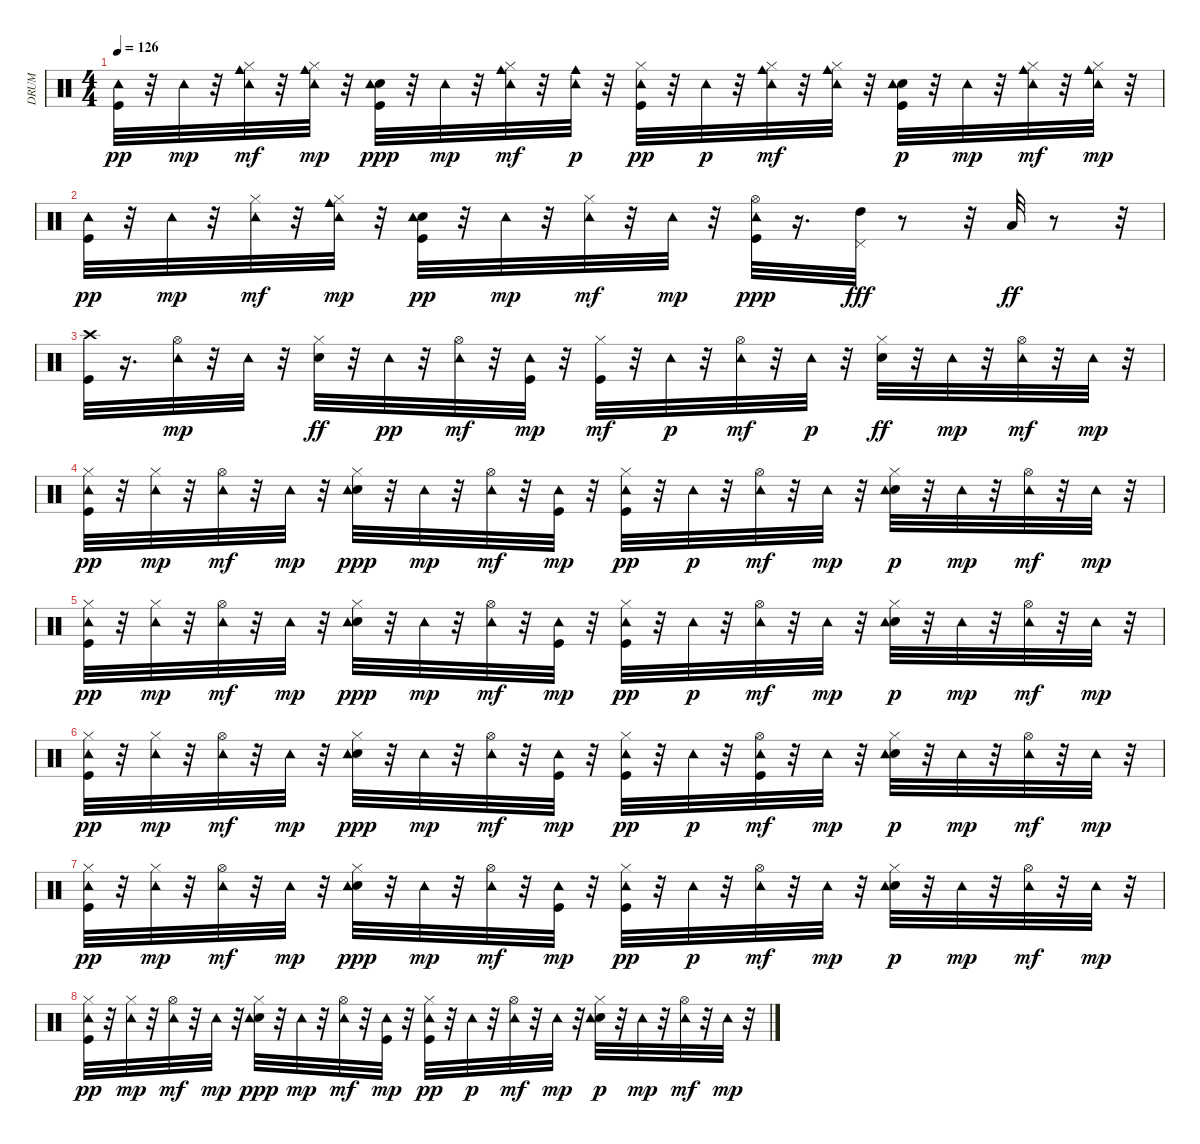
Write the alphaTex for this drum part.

\track ("DRUM" "DRUM") {instrument percussion}
\staff {score}
\articulation defaults
\ts (4 4)
\tempo 126
\clef neutral
\ks c
("Kick (hit)" "Tambourine (hit)").32{dy pp} r.32 "Tambourine (hit)".32{dy mp} r.32 ("Hi-Hat (closed)" "Tambourine (hit)" "Cowbell medium (hit)").32{dy mf} r.32 ("Hi-Hat (closed)" "Tambourine (hit)" "Cowbell medium (hit)").32{dy mp} r.32 ("Kick (hit)" "Electric Snare (hit)" "Tambourine (hit)").32{dy ppp} r.32 "Tambourine (hit)".32{dy mp} r.32 ("Hi-Hat (closed)" "Tambourine (hit)" "Cowbell medium (hit)").32{dy mf} r.32 ("Tambourine (hit)" "Cowbell medium (hit)").32{dy p} r.32 ("Kick (hit)" "Hi-Hat (closed)" "Tambourine (hit)").32{dy pp} r.32 "Tambourine (hit)".32{dy p} r.32 ("Hi-Hat (closed)" "Tambourine (hit)" "Cowbell medium (hit)").32{dy mf} r.32 ("Hi-Hat (closed)" "Tambourine (hit)" "Cowbell medium (hit)").32 r.32 ("Kick (hit)" "Electric Snare (hit)" "Tambourine (hit)").32{dy p} r.32 "Tambourine (hit)".32{dy mp} r.32 ("Hi-Hat (closed)" "Tambourine (hit)" "Cowbell medium (hit)").32{dy mf} r.32 ("Hi-Hat (closed)" "Tambourine (hit)" "Cowbell medium (hit)").32{dy mp} r.32 |
("Kick (hit)" "Tambourine (hit)").32{dy pp} r.32 "Tambourine (hit)".32{dy mp} r.32 ("Hi-Hat (closed)" "Tambourine (hit)").32{dy mf} r.32 ("Hi-Hat (closed)" "Tambourine (hit)" "Cowbell medium (hit)").32{dy mp} r.32 ("Kick (hit)" "Electric Snare (hit)" "Tambourine (hit)").32{dy pp} r.32 "Tambourine (hit)".32{dy mp} r.32 ("Hi-Hat (closed)" "Tambourine (hit)").32{dy mf} r.32 "Tambourine (hit)".32{dy mp} r.32 ("Kick (hit)" "Hi-Hat (open)" "Tambourine (hit)").32{dy ppp} r.16{d} ("High Tom (hit)" "Pedal Hi-Hat (hit)").32{dy fff} r.8 r.32 "Low Tom (hit)".32{dy ff} r.8 r.32 |
("Kick (hit)" "Crash high (hit)").32 r.16{d} ("Hi-Hat (open)" "Tambourine (hit)").32{dy mp} r.32 "Tambourine (hit)".32 r.32 ("Electric Snare (hit)" "Hi-Hat (closed)").32{dy ff} r.32 "Tambourine (hit)".32{dy pp} r.32 ("Hi-Hat (open)" "Tambourine (hit)").32{dy mf} r.32 ("Kick (hit)" "Tambourine (hit)").32{dy mp} r.32 ("Kick (hit)" "Hi-Hat (closed)").32{dy mf} r.32 "Tambourine (hit)".32{dy p} r.32 ("Hi-Hat (open)" "Tambourine (hit)").32{dy mf} r.32 "Tambourine (hit)".32{dy p} r.32 ("Electric Snare (hit)" "Hi-Hat (closed)").32{dy ff} r.32 "Tambourine (hit)".32{dy mp} r.32 ("Hi-Hat (open)" "Tambourine (hit)").32{dy mf} r.32 "Tambourine (hit)".32{dy mp} r.32 |
("Kick (hit)" "Hi-Hat (closed)" "Tambourine (hit)").32{dy pp} r.32 ("Hi-Hat (closed)" "Tambourine (hit)").32{dy mp} r.32 ("Hi-Hat (open)" "Tambourine (hit)").32{dy mf} r.32 "Tambourine (hit)".32{dy mp} r.32 ("Electric Snare (hit)" "Hi-Hat (closed)" "Tambourine (hit)").32{dy ppp} r.32 "Tambourine (hit)".32{dy mp} r.32 ("Hi-Hat (open)" "Tambourine (hit)").32{dy mf} r.32 ("Kick (hit)" "Tambourine (hit)").32{dy mp} r.32 ("Kick (hit)" "Hi-Hat (closed)" "Tambourine (hit)").32{dy pp} r.32 "Tambourine (hit)".32{dy p} r.32 ("Hi-Hat (open)" "Tambourine (hit)").32{dy mf} r.32 "Tambourine (hit)".32{dy mp} r.32 ("Electric Snare (hit)" "Hi-Hat (closed)" "Tambourine (hit)").32{dy p} r.32 "Tambourine (hit)".32{dy mp} r.32 ("Hi-Hat (open)" "Tambourine (hit)").32{dy mf} r.32 "Tambourine (hit)".32{dy mp} r.32 |
("Kick (hit)" "Hi-Hat (closed)" "Tambourine (hit)").32{dy pp} r.32 ("Hi-Hat (closed)" "Tambourine (hit)").32{dy mp} r.32 ("Hi-Hat (open)" "Tambourine (hit)").32{dy mf} r.32 "Tambourine (hit)".32{dy mp} r.32 ("Electric Snare (hit)" "Hi-Hat (closed)" "Tambourine (hit)").32{dy ppp} r.32 "Tambourine (hit)".32{dy mp} r.32 ("Hi-Hat (open)" "Tambourine (hit)").32{dy mf} r.32 ("Kick (hit)" "Tambourine (hit)").32{dy mp} r.32 ("Kick (hit)" "Hi-Hat (closed)" "Tambourine (hit)").32{dy pp} r.32 "Tambourine (hit)".32{dy p} r.32 ("Hi-Hat (open)" "Tambourine (hit)").32{dy mf} r.32 "Tambourine (hit)".32{dy mp} r.32 ("Electric Snare (hit)" "Hi-Hat (closed)" "Tambourine (hit)").32{dy p} r.32 "Tambourine (hit)".32{dy mp} r.32 ("Hi-Hat (open)" "Tambourine (hit)").32{dy mf} r.32 "Tambourine (hit)".32{dy mp} r.32 |
("Kick (hit)" "Hi-Hat (closed)" "Tambourine (hit)").32{dy pp} r.32 ("Hi-Hat (closed)" "Tambourine (hit)").32{dy mp} r.32 ("Hi-Hat (open)" "Tambourine (hit)").32{dy mf} r.32 "Tambourine (hit)".32{dy mp} r.32 ("Electric Snare (hit)" "Hi-Hat (closed)" "Tambourine (hit)").32{dy ppp} r.32 "Tambourine (hit)".32{dy mp} r.32 ("Hi-Hat (open)" "Tambourine (hit)").32{dy mf} r.32 ("Kick (hit)" "Tambourine (hit)").32{dy mp} r.32 ("Kick (hit)" "Hi-Hat (closed)" "Tambourine (hit)").32{dy pp} r.32 "Tambourine (hit)".32{dy p} r.32 ("Kick (hit)" "Hi-Hat (open)" "Tambourine (hit)").32{dy mf} r.32 "Tambourine (hit)".32{dy mp} r.32 ("Electric Snare (hit)" "Hi-Hat (closed)" "Tambourine (hit)").32{dy p} r.32 "Tambourine (hit)".32{dy mp} r.32 ("Hi-Hat (open)" "Tambourine (hit)").32{dy mf} r.32 "Tambourine (hit)".32{dy mp} r.32 |
("Kick (hit)" "Hi-Hat (closed)" "Tambourine (hit)").32{dy pp} r.32 ("Hi-Hat (closed)" "Tambourine (hit)").32{dy mp} r.32 ("Hi-Hat (open)" "Tambourine (hit)").32{dy mf} r.32 "Tambourine (hit)".32{dy mp} r.32 ("Electric Snare (hit)" "Hi-Hat (closed)" "Tambourine (hit)").32{dy ppp} r.32 "Tambourine (hit)".32{dy mp} r.32 ("Hi-Hat (open)" "Tambourine (hit)").32{dy mf} r.32 ("Kick (hit)" "Tambourine (hit)").32{dy mp} r.32 ("Kick (hit)" "Hi-Hat (closed)" "Tambourine (hit)").32{dy pp} r.32 "Tambourine (hit)".32{dy p} r.32 ("Hi-Hat (open)" "Tambourine (hit)").32{dy mf} r.32 "Tambourine (hit)".32{dy mp} r.32 ("Electric Snare (hit)" "Hi-Hat (closed)" "Tambourine (hit)").32{dy p} r.32 "Tambourine (hit)".32{dy mp} r.32 ("Hi-Hat (open)" "Tambourine (hit)").32{dy mf} r.32 "Tambourine (hit)".32{dy mp} r.32 |
("Kick (hit)" "Hi-Hat (closed)" "Tambourine (hit)").32{dy pp} r.32 ("Hi-Hat (closed)" "Tambourine (hit)").32{dy mp} r.32 ("Hi-Hat (open)" "Tambourine (hit)").32{dy mf} r.32 "Tambourine (hit)".32{dy mp} r.32 ("Electric Snare (hit)" "Hi-Hat (closed)" "Tambourine (hit)").32{dy ppp} r.32 "Tambourine (hit)".32{dy mp} r.32 ("Hi-Hat (open)" "Tambourine (hit)").32{dy mf} r.32 ("Kick (hit)" "Tambourine (hit)").32{dy mp} r.32 ("Kick (hit)" "Hi-Hat (closed)" "Tambourine (hit)").32{dy pp} r.32 "Tambourine (hit)".32{dy p} r.32 ("Hi-Hat (open)" "Tambourine (hit)").32{dy mf} r.32 "Tambourine (hit)".32{dy mp} r.32 ("Electric Snare (hit)" "Hi-Hat (closed)" "Tambourine (hit)").32{dy p} r.32 "Tambourine (hit)".32{dy mp} r.32 ("Hi-Hat (open)" "Tambourine (hit)").32{dy mf} r.32 "Tambourine (hit)".32{dy mp} r.32
